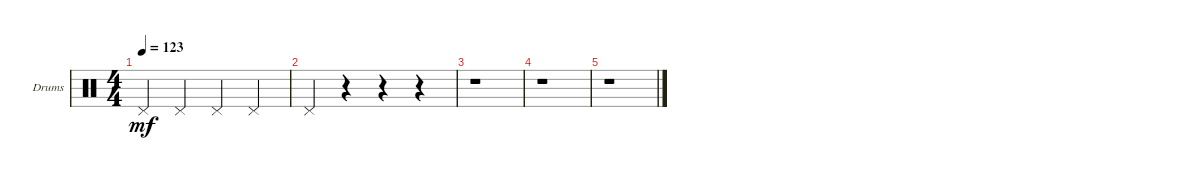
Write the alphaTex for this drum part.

\defaultSystemsLayout 4
\bracketExtendMode groupsimilarinstruments
\firstSystemTrackNameOrientation horizontal
\otherSystemsTrackNameOrientation horizontal
\track ("Pedal Hithat" "Drums") {instrument percussion}
\staff {score}
\articulation defaults
\ts (4 4)
\tempo 123
\clef neutral
\ks c "Pedal Hi-Hat (hit)".4{dy mf} "Pedal Hi-Hat (hit)".4 "Pedal Hi-Hat (hit)".4 "Pedal Hi-Hat (hit)".4
|
"Pedal Hi-Hat (hit)".4 r.4 r.4 r.4 |
r.1 |
r.1 |
r.1
